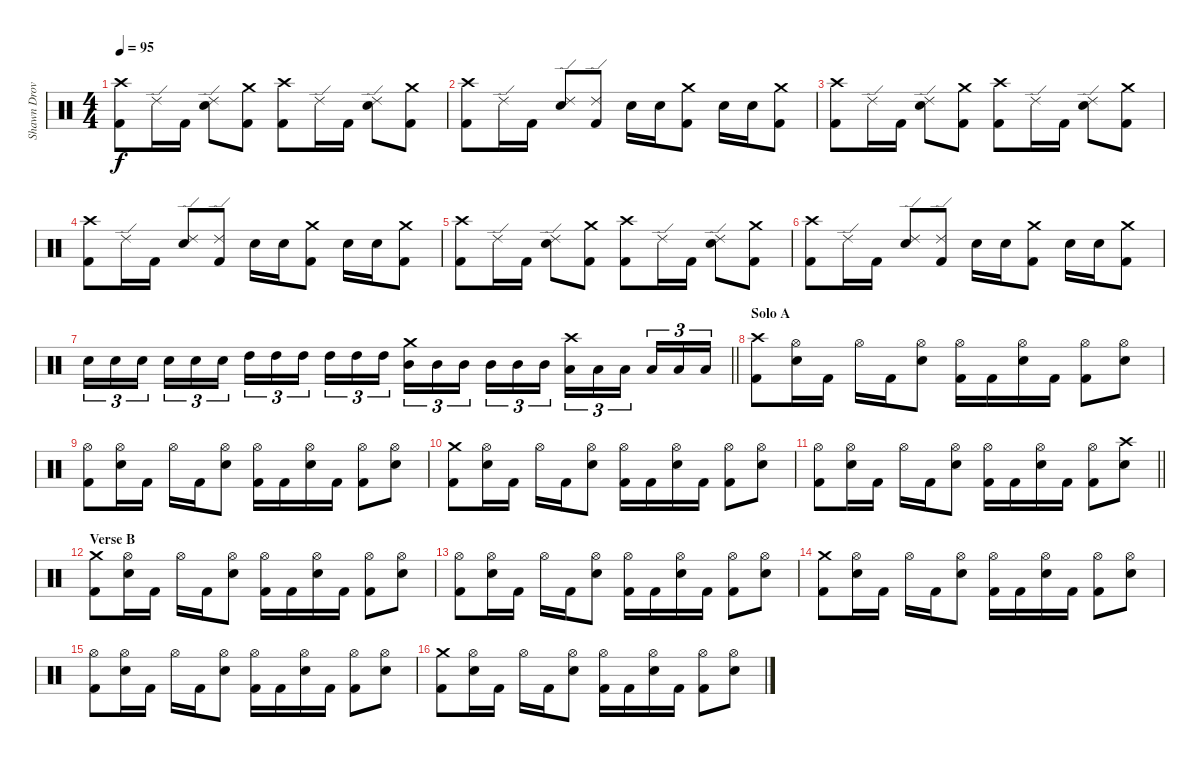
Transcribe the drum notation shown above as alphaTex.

\track ("Shawn Drover" "Shawn Drov") {instrument percussion}
\staff {score}
\articulation defaults
\ts (4 4)
\tempo 95
\clef neutral
\ks c
("Crash high (hit)" "Kick (hit) 2").8{dy f} "Ride (edge) 2".16 "Kick (hit) 2".16 ("Ride (edge) 2" "Electric Snare (hit)").8 ("Crash medium (hit)" "Kick (hit) 2").8 ("Crash high (hit)" "Kick (hit) 2").8 "Ride (edge) 2".16 "Kick (hit) 2".16 ("Ride (edge) 2" "Electric Snare (hit)").8 ("Crash medium (hit)" "Kick (hit) 2").8 |
("Crash high (hit)" "Kick (hit) 2").8 "Ride (edge) 2".16 "Kick (hit) 2".16 ("Ride (edge) 2" "Electric Snare (hit)").8 ("Ride (edge) 2" "Kick (hit) 2").8 "Electric Snare (hit)".16 "Electric Snare (hit)".16 ("Crash medium (hit)" "Kick (hit) 2").8 "Electric Snare (hit)".16 "Electric Snare (hit)".16 ("Crash medium (hit)" "Kick (hit) 2").8 |
("Crash high (hit)" "Kick (hit) 2").8 "Ride (edge) 2".16 "Kick (hit) 2".16 ("Ride (edge) 2" "Electric Snare (hit)").8 ("Crash medium (hit)" "Kick (hit) 2").8 ("Crash high (hit)" "Kick (hit) 2").8 "Ride (edge) 2".16 "Kick (hit) 2".16 ("Ride (edge) 2" "Electric Snare (hit)").8 ("Crash medium (hit)" "Kick (hit) 2").8 |
("Crash high (hit)" "Kick (hit) 2").8 "Ride (edge) 2".16 "Kick (hit) 2".16 ("Ride (edge) 2" "Electric Snare (hit)").8 ("Ride (edge) 2" "Kick (hit) 2").8 "Electric Snare (hit)".16 "Electric Snare (hit)".16 ("Crash medium (hit)" "Kick (hit) 2").8 "Electric Snare (hit)".16 "Electric Snare (hit)".16 ("Crash medium (hit)" "Kick (hit) 2").8 |
("Crash high (hit)" "Kick (hit) 2").8 "Ride (edge) 2".16 "Kick (hit) 2".16 ("Ride (edge) 2" "Electric Snare (hit)").8 ("Crash medium (hit)" "Kick (hit) 2").8 ("Crash high (hit)" "Kick (hit) 2").8 "Ride (edge) 2".16 "Kick (hit) 2".16 ("Ride (edge) 2" "Electric Snare (hit)").8 ("Crash medium (hit)" "Kick (hit) 2").8 |
("Crash high (hit)" "Kick (hit) 2").8 "Ride (edge) 2".16 "Kick (hit) 2".16 ("Ride (edge) 2" "Electric Snare (hit)").8 ("Ride (edge) 2" "Kick (hit) 2").8 "Electric Snare (hit)".16 "Electric Snare (hit)".16 ("Crash medium (hit)" "Kick (hit) 2").8 "Electric Snare (hit)".16 "Electric Snare (hit)".16 ("Crash medium (hit)" "Kick (hit) 2").8 |
\barLineRight lightlight "Electric Snare (hit)".16{tu (3 2)} "Electric Snare (hit)".16{tu (3 2)} "Electric Snare (hit)".16{tu (3 2) beam splitsecondary} "Electric Snare (hit)".16{tu (3 2)} "Electric Snare (hit)".16{tu (3 2)} "Electric Snare (hit)".16{tu (3 2)} "High Tom (hit)".16{tu (3 2)} "High Tom (hit)".16{tu (3 2)} "High Tom (hit)".16{tu (3 2) beam splitsecondary} "High Tom (hit)".16{tu (3 2)} "High Tom (hit)".16{tu (3 2)} "High Tom (hit)".16{tu (3 2)}
("Crash medium (hit)" "Mid Tom (hit)").16{tu (3 2)} "Mid Tom (hit)".16{tu (3 2)} "Mid Tom (hit)".16{tu (3 2) beam splitsecondary} "Mid Tom (hit)".16{tu (3 2)} "Mid Tom (hit)".16{tu (3 2)} "Mid Tom (hit)".16{tu (3 2)} ("Crash high (hit)" "Low Tom (hit)").16{tu (3 2)} "Low Tom (hit)".16{tu (3 2)} "Low Tom (hit)".16{tu (3 2) beam splitsecondary} "Low Tom (hit)".16{tu (3 2)} "Low Tom (hit)".16{tu (3 2)} "Low Tom (hit)".16{tu (3 2)} |
\section ("" "Solo A")
("Crash high (hit)" "Kick (hit) 2").8 ("Hi-Hat (open)" "Electric Snare (hit)").16 "Kick (hit) 2".16 "Hi-Hat (open)".16 "Kick (hit) 2".16 ("Hi-Hat (open)" "Electric Snare (hit)").8 ("Hi-Hat (open)" "Kick (hit) 2").16 "Kick (hit) 2".16 ("Hi-Hat (open)" "Electric Snare (hit)").16 "Kick (hit) 2".16 ("Hi-Hat (open)" "Kick (hit) 2").8 ("Hi-Hat (open)" "Electric Snare (hit)").8 |
("Hi-Hat (open)" "Kick (hit) 2").8 ("Hi-Hat (open)" "Electric Snare (hit)").16 "Kick (hit) 2".16 "Hi-Hat (open)".16 "Kick (hit) 2".16 ("Hi-Hat (open)" "Electric Snare (hit)").8 ("Hi-Hat (open)" "Kick (hit) 2").16 "Kick (hit) 2".16 ("Hi-Hat (open)" "Electric Snare (hit)").16 "Kick (hit) 2".16 ("Hi-Hat (open)" "Kick (hit) 2").8 ("Hi-Hat (open)" "Electric Snare (hit)").8 |
("Crash medium (hit)" "Kick (hit) 2").8 ("Hi-Hat (open)" "Electric Snare (hit)").16 "Kick (hit) 2".16 "Hi-Hat (open)".16 "Kick (hit) 2".16 ("Hi-Hat (open)" "Electric Snare (hit)").8 ("Hi-Hat (open)" "Kick (hit) 2").16 "Kick (hit) 2".16 ("Hi-Hat (open)" "Electric Snare (hit)").16 "Kick (hit) 2".16 ("Hi-Hat (open)" "Kick (hit) 2").8 ("Hi-Hat (open)" "Electric Snare (hit)").8 |
\barLineRight lightlight
("Hi-Hat (open)" "Kick (hit) 2").8 ("Hi-Hat (open)" "Electric Snare (hit)").16 "Kick (hit) 2".16 "Hi-Hat (open)".16 "Kick (hit) 2".16 ("Hi-Hat (open)" "Electric Snare (hit)").8 ("Hi-Hat (open)" "Kick (hit) 2").16 "Kick (hit) 2".16 ("Hi-Hat (open)" "Electric Snare (hit)").16 "Kick (hit) 2".16 ("Hi-Hat (open)" "Kick (hit) 2").8 ("Crash high (hit)" "Electric Snare (hit)").8 |
\section ("" "Verse B")
("Crash medium (hit)" "Kick (hit) 2").8 ("Hi-Hat (open)" "Electric Snare (hit)").16 "Kick (hit) 2".16 "Hi-Hat (open)".16 "Kick (hit) 2".16 ("Hi-Hat (open)" "Electric Snare (hit)").8 ("Hi-Hat (open)" "Kick (hit) 2").16 "Kick (hit) 2".16 ("Hi-Hat (open)" "Electric Snare (hit)").16 "Kick (hit) 2".16 ("Hi-Hat (open)" "Kick (hit) 2").8 ("Hi-Hat (open)" "Electric Snare (hit)").8 |
("Hi-Hat (open)" "Kick (hit) 2").8 ("Hi-Hat (open)" "Electric Snare (hit)").16 "Kick (hit) 2".16 "Hi-Hat (open)".16 "Kick (hit) 2".16 ("Hi-Hat (open)" "Electric Snare (hit)").8 ("Hi-Hat (open)" "Kick (hit) 2").16 "Kick (hit) 2".16 ("Hi-Hat (open)" "Electric Snare (hit)").16 "Kick (hit) 2".16 ("Hi-Hat (open)" "Kick (hit) 2").8 ("Hi-Hat (open)" "Electric Snare (hit)").8 |
("Crash medium (hit)" "Kick (hit) 2").8 ("Hi-Hat (open)" "Electric Snare (hit)").16 "Kick (hit) 2".16 "Hi-Hat (open)".16 "Kick (hit) 2".16 ("Hi-Hat (open)" "Electric Snare (hit)").8 ("Hi-Hat (open)" "Kick (hit) 2").16 "Kick (hit) 2".16 ("Hi-Hat (open)" "Electric Snare (hit)").16 "Kick (hit) 2".16 ("Hi-Hat (open)" "Kick (hit) 2").8 ("Hi-Hat (open)" "Electric Snare (hit)").8 |
("Hi-Hat (open)" "Kick (hit) 2").8 ("Hi-Hat (open)" "Electric Snare (hit)").16 "Kick (hit) 2".16 "Hi-Hat (open)".16 "Kick (hit) 2".16 ("Hi-Hat (open)" "Electric Snare (hit)").8 ("Hi-Hat (open)" "Kick (hit) 2").16 "Kick (hit) 2".16 ("Hi-Hat (open)" "Electric Snare (hit)").16 "Kick (hit) 2".16 ("Hi-Hat (open)" "Kick (hit) 2").8 ("Hi-Hat (open)" "Electric Snare (hit)").8 |
("Crash medium (hit)" "Kick (hit) 2").8 ("Hi-Hat (open)" "Electric Snare (hit)").16 "Kick (hit) 2".16 "Hi-Hat (open)".16 "Kick (hit) 2".16 ("Hi-Hat (open)" "Electric Snare (hit)").8 ("Hi-Hat (open)" "Kick (hit) 2").16 "Kick (hit) 2".16 ("Hi-Hat (open)" "Electric Snare (hit)").16 "Kick (hit) 2".16 ("Hi-Hat (open)" "Kick (hit) 2").8 ("Hi-Hat (open)" "Electric Snare (hit)").8
